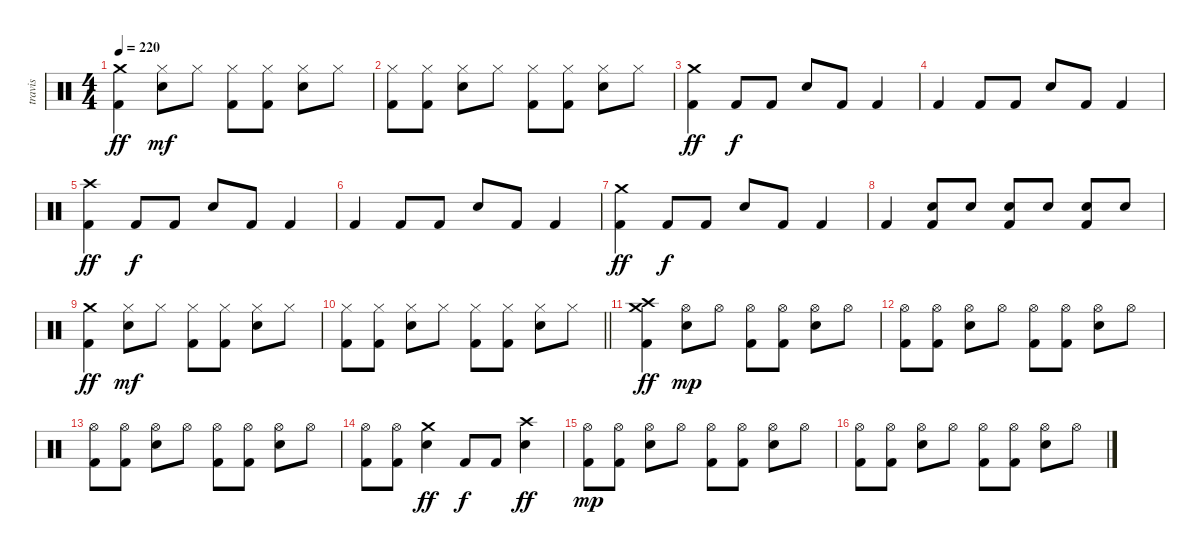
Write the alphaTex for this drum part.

\track ("travis" "travis") {instrument percussion}
\staff {score}
\articulation defaults
\ts (4 4)
\tempo 220
\clef neutral
\ks c
("Crash medium (hit)" "Kick (hit) 2").4{dy ff} ("Hi-Hat (closed)" "Electric Snare (hit)").8{dy mf} "Hi-Hat (closed)".8 ("Hi-Hat (closed)" "Kick (hit) 2").8 ("Hi-Hat (closed)" "Kick (hit) 2").8 ("Hi-Hat (closed)" "Electric Snare (hit)").8 "Hi-Hat (closed)".8 |
("Hi-Hat (closed)" "Kick (hit) 2").8 ("Hi-Hat (closed)" "Kick (hit) 2").8 ("Hi-Hat (closed)" "Electric Snare (hit)").8 "Hi-Hat (closed)".8 ("Hi-Hat (closed)" "Kick (hit) 2").8 ("Hi-Hat (closed)" "Kick (hit) 2").8 ("Hi-Hat (closed)" "Electric Snare (hit)").8 "Hi-Hat (closed)".8 |
("Crash medium (hit)" "Kick (hit) 2").4{dy ff} "Kick (hit) 2".8{dy f} "Kick (hit) 2".8 "Electric Snare (hit)".8 "Kick (hit) 2".8 "Kick (hit) 2".4 |
"Kick (hit) 2".4 "Kick (hit) 2".8 "Kick (hit) 2".8 "Electric Snare (hit)".8 "Kick (hit) 2".8 "Kick (hit) 2".4 |
("Crash high (hit)" "Kick (hit) 2").4{dy ff} "Kick (hit) 2".8{dy f} "Kick (hit) 2".8 "Electric Snare (hit)".8 "Kick (hit) 2".8 "Kick (hit) 2".4 |
"Kick (hit) 2".4 "Kick (hit) 2".8 "Kick (hit) 2".8 "Electric Snare (hit)".8 "Kick (hit) 2".8 "Kick (hit) 2".4 |
("Crash medium (hit)" "Kick (hit) 2").4{dy ff} "Kick (hit) 2".8{dy f} "Kick (hit) 2".8 "Electric Snare (hit)".8 "Kick (hit) 2".8 "Kick (hit) 2".4 |
"Kick (hit) 2".4 ("Electric Snare (hit)" "Kick (hit) 2").8 "Electric Snare (hit)".8 ("Electric Snare (hit)" "Kick (hit) 2").8 "Electric Snare (hit)".8 ("Electric Snare (hit)" "Kick (hit) 2").8 "Electric Snare (hit)".8 |
("Crash medium (hit)" "Kick (hit) 2").4{dy ff} ("Hi-Hat (closed)" "Electric Snare (hit)").8{dy mf} "Hi-Hat (closed)".8 ("Hi-Hat (closed)" "Kick (hit) 2").8 ("Hi-Hat (closed)" "Kick (hit) 2").8 ("Hi-Hat (closed)" "Electric Snare (hit)").8 "Hi-Hat (closed)".8 |
\barLineRight lightlight
("Hi-Hat (closed)" "Kick (hit) 2").8 ("Hi-Hat (closed)" "Kick (hit) 2").8 ("Hi-Hat (closed)" "Electric Snare (hit)").8 "Hi-Hat (closed)".8 ("Hi-Hat (closed)" "Kick (hit) 2").8 ("Hi-Hat (closed)" "Kick (hit) 2").8 ("Hi-Hat (closed)" "Electric Snare (hit)").8 "Hi-Hat (closed)".8 |
("Crash high (hit)" "Crash medium (hit)" "Kick (hit) 2").4{dy ff} ("Hi-Hat (open)" "Electric Snare (hit)").8{dy mp} "Hi-Hat (open)".8 ("Hi-Hat (open)" "Kick (hit) 2").8 ("Hi-Hat (open)" "Kick (hit) 2").8 ("Hi-Hat (open)" "Electric Snare (hit)").8 "Hi-Hat (open)".8 |
("Hi-Hat (open)" "Kick (hit) 2").8 ("Hi-Hat (open)" "Kick (hit) 2").8 ("Hi-Hat (open)" "Electric Snare (hit)").8 "Hi-Hat (open)".8 ("Hi-Hat (open)" "Kick (hit) 2").8 ("Hi-Hat (open)" "Kick (hit) 2").8 ("Hi-Hat (open)" "Electric Snare (hit)").8 "Hi-Hat (open)".8 |
("Hi-Hat (open)" "Kick (hit) 2").8 ("Hi-Hat (open)" "Kick (hit) 2").8 ("Hi-Hat (open)" "Electric Snare (hit)").8 "Hi-Hat (open)".8 ("Hi-Hat (open)" "Kick (hit) 2").8 ("Hi-Hat (open)" "Kick (hit) 2").8 ("Hi-Hat (open)" "Electric Snare (hit)").8 "Hi-Hat (open)".8 |
("Hi-Hat (open)" "Kick (hit) 2").8 ("Hi-Hat (open)" "Kick (hit) 2").8 ("Crash medium (hit)" "Electric Snare (hit)").4{dy ff} "Kick (hit) 2".8{dy f} "Kick (hit) 2".8 ("Crash high (hit)" "Electric Snare (hit)").4{dy ff} |
("Hi-Hat (open)" "Kick (hit) 2").8{dy mp} ("Hi-Hat (open)" "Kick (hit) 2").8 ("Hi-Hat (open)" "Electric Snare (hit)").8 "Hi-Hat (open)".8 ("Hi-Hat (open)" "Kick (hit) 2").8 ("Hi-Hat (open)" "Kick (hit) 2").8 ("Hi-Hat (open)" "Electric Snare (hit)").8 "Hi-Hat (open)".8 |
("Hi-Hat (open)" "Kick (hit) 2").8 ("Hi-Hat (open)" "Kick (hit) 2").8 ("Hi-Hat (open)" "Electric Snare (hit)").8 "Hi-Hat (open)".8 ("Hi-Hat (open)" "Kick (hit) 2").8 ("Hi-Hat (open)" "Kick (hit) 2").8 ("Hi-Hat (open)" "Electric Snare (hit)").8 "Hi-Hat (open)".8
